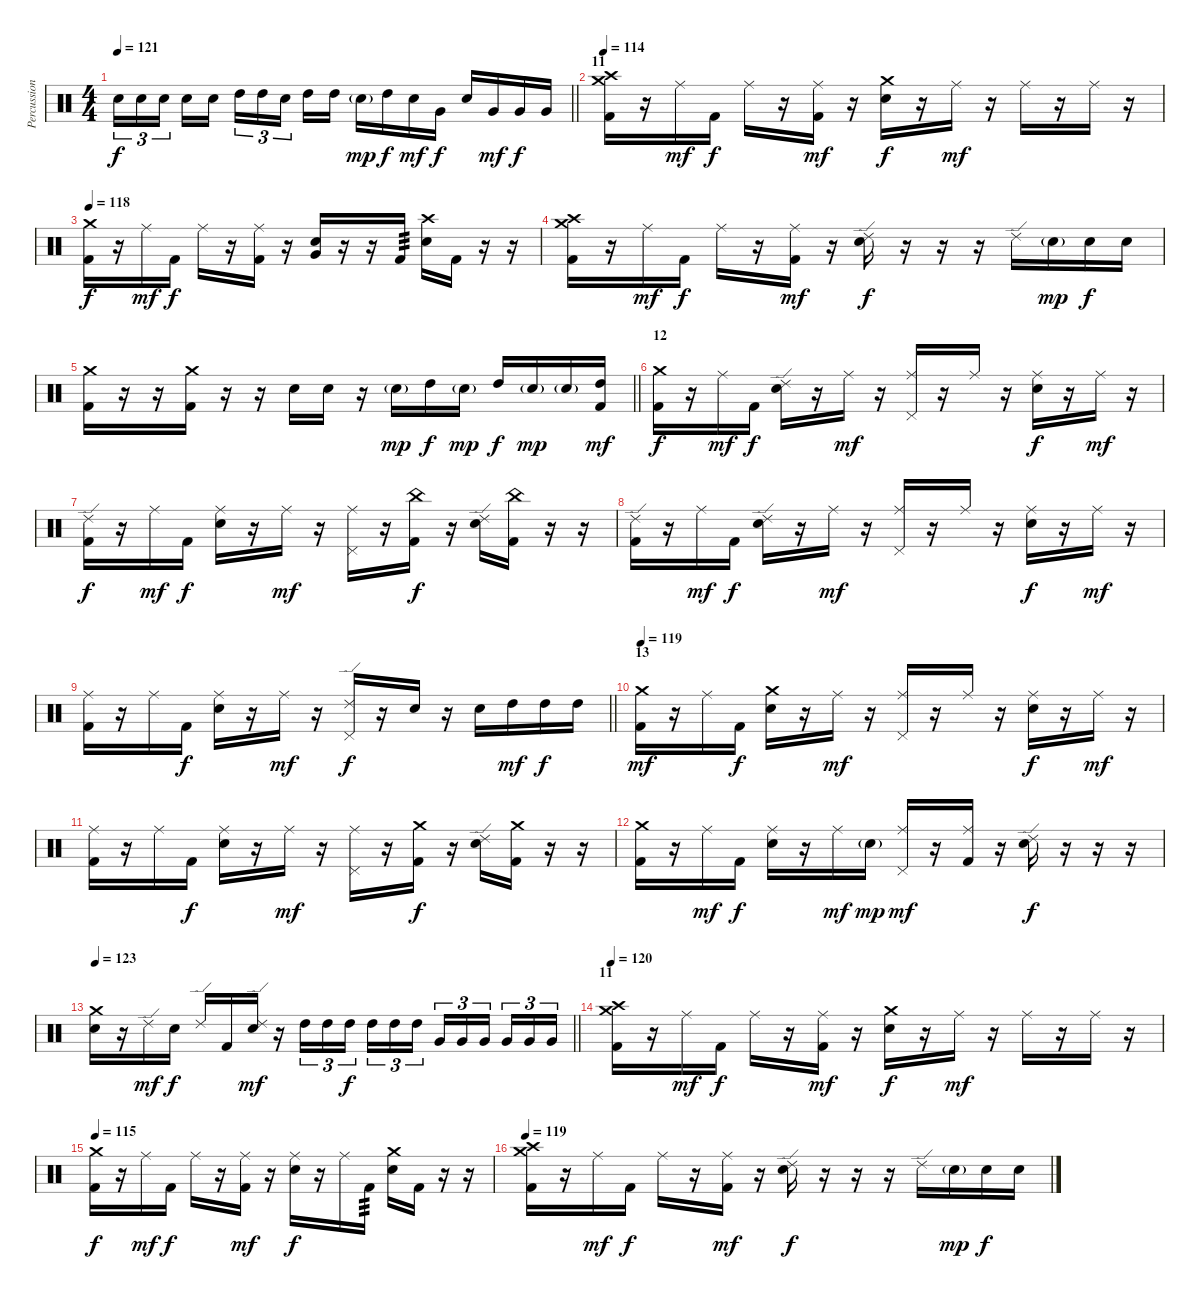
\track ("Percussion" "Percussion") {instrument percussion}
\staff {score}
\articulation defaults
\ts (4 4)
\tempo 121
\clef neutral
\barLineRight lightlight
\ks c "Snare (hit) 2".16{tu (3 2) dy f} "Snare (hit) 2".16{tu (3 2)} "Snare (hit) 2".16{tu (3 2) beam splitsecondary} "Snare (hit) 2".16 "Snare (hit) 2".16 "High Tom (hit)".16{tu (3 2)} "High Tom (hit)".16{tu (3 2)} "Snare (hit) 2".16{tu (3 2) beam splitsecondary} "High Tom (hit)".16 "High Tom (hit)".16 "Snare (hit) 2"{g}.16{dy mp} "High Tom (hit)".16{dy f} "Snare (hit) 2".16{dy mf} "Very Low Tom (hit)".16{dy f} "Snare (hit) 2".16 "Very Low Tom (hit)".16{dy mf} "Very Low Tom (hit)".16{dy f} "Very Low Tom (hit)".16
|
\section ("" "11")
\tempo 114
("Crash high (hit)" "Crash medium (hit)" "Kick (hit) 2").16 r.16 "Ride (middle)".16{dy mf} "Kick (hit) 2".16{dy f} "Ride (middle)".16 r.16 ("Ride (middle)" "Kick (hit) 2").16{dy mf} r.16 ("Crash medium (hit)" "Snare (hit) 2").16{dy f} r.16 "Ride (middle)".16{dy mf} r.16 "Ride (middle)".16 r.16 "Ride (middle)".16 r.16 |
\tempo 118
("Crash medium (hit)" "Kick (hit) 2").16{dy f} r.16 "Ride (middle)".16{dy mf} "Kick (hit) 2".16{dy f} "Ride (middle)".16 r.16 ("Ride (middle)" "Kick (hit) 2").16 r.16 ("Snare (hit) 2" "Very Low Tom (hit)").16{bu 60} r.16 r.16 "Kick (hit) 2".16{tp 3} ("Crash high (hit)" "Snare (hit) 2").16 "Kick (hit) 2".16 r.16 r.16 |
("Crash high (hit)" "Crash medium (hit)" "Kick (hit) 2").16 r.16 "Ride (middle)".16{dy mf} "Kick (hit) 2".16{dy f} "Ride (middle)".16 r.16 ("Ride (middle)" "Kick (hit) 2").16{dy mf} r.16 ("Ride (edge) 2" "Snare (hit) 2").16{dy f} r.16 r.16 r.16 "Ride (edge) 2".16 "Snare (hit) 2"{g}.16{dy mp} "Snare (hit) 2".16{dy f} "Snare (hit) 2".16 |
\barLineRight lightlight
("Crash medium (hit)" "Kick (hit) 2").16 r.16 r.16 ("Crash medium (hit)" "Kick (hit) 2").16 r.16 r.16 "Snare (hit) 2".16 "Snare (hit) 2".16 r.16 "Snare (hit) 2"{g}.16{dy mp} "High Tom (hit)".16{dy f} "Snare (hit) 2"{g}.16{dy mp} "High Tom (hit)".16{dy f} "Snare (hit) 2"{g}.16{dy mp} "Snare (hit) 2"{g}.16 ("High Tom (hit)" "Kick (hit) 2").16{dy mf} |
\section ("" "12")
("Crash medium (hit)" "Kick (hit) 2").16{dy f} r.16 "Ride (middle)".16{dy mf} "Kick (hit) 2".16{dy f} ("Ride (edge) 2" "Snare (hit) 2").16 r.16 "Ride (middle)".16{dy mf} r.16 ("Ride (middle)" "Pedal Hi-Hat (hit)").16 r.16 "Ride (middle)".16 r.16 ("Ride (middle)" "Snare (hit) 2").16{dy f} r.16 "Ride (middle)".16{dy mf} r.16 |
("Ride (edge) 2" "Kick (hit) 2").16{dy f} r.16 "Ride (middle)".16{dy mf} "Kick (hit) 2".16{dy f} ("Ride (middle)" "Snare (hit) 2").16 r.16 "Ride (middle)".16{dy mf} r.16 ("Ride (middle)" "Pedal Hi-Hat (hit)").16 r.16 ("China (hit)" "Kick (hit) 2").16{dy f} r.16 ("Ride (edge) 2" "Snare (hit) 2").16 ("China (hit)" "Kick (hit) 2").16 r.16 r.16 |
("Ride (edge) 2" "Kick (hit) 2").16 r.16 "Ride (middle)".16{dy mf} "Kick (hit) 2".16{dy f} ("Ride (edge) 2" "Snare (hit) 2").16 r.16 "Ride (middle)".16{dy mf} r.16 ("Ride (middle)" "Pedal Hi-Hat (hit)").16 r.16 "Ride (middle)".16 r.16 ("Ride (middle)" "Snare (hit) 2").16{dy f} r.16 "Ride (middle)".16{dy mf} r.16 |
\barLineRight lightlight
("Ride (middle)" "Kick (hit) 2").16 r.16 "Ride (middle)".16 "Kick (hit) 2".16{dy f} ("Ride (middle)" "Snare (hit) 2").16 r.16 "Ride (middle)".16{dy mf} r.16 ("Ride (edge) 2" "Pedal Hi-Hat (hit)").16{dy f} r.16 "Snare (hit) 2".16 r.16 "Snare (hit) 2".16 "High Tom (hit)".16{dy mf} "High Tom (hit)".16{dy f} "High Tom (hit)".16 |
\section ("" "13")
\tempo 119
("Crash medium (hit)" "Kick (hit) 2").16{dy mf} r.16 "Ride (middle)".16 "Kick (hit) 2".16{dy f} ("Crash medium (hit)" "Snare (hit) 2").16 r.16 "Ride (middle)".16{dy mf} r.16 ("Ride (middle)" "Pedal Hi-Hat (hit)").16 r.16 "Ride (middle)".16 r.16 ("Ride (middle)" "Snare (hit) 2").16{dy f} r.16 "Ride (middle)".16{dy mf} r.16 |
("Ride (middle)" "Kick (hit) 2").16 r.16 "Ride (middle)".16 "Kick (hit) 2".16{dy f} ("Ride (middle)" "Snare (hit) 2").16 r.16 "Ride (middle)".16{dy mf} r.16 ("Ride (middle)" "Pedal Hi-Hat (hit)").16 r.16 ("Crash medium (hit)" "Kick (hit) 2").16{dy f} r.16 ("Ride (edge) 2" "Snare (hit) 2").16 ("Crash medium (hit)" "Kick (hit) 2").16 r.16 r.16 |
("Crash medium (hit)" "Kick (hit) 2").16 r.16 "Ride (middle)".16{dy mf} "Kick (hit) 2".16{dy f} ("Ride (middle)" "Snare (hit) 2").16 r.16 "Ride (middle)".16{dy mf} "Snare (hit) 2"{g}.16{dy mp} ("Ride (middle)" "Pedal Hi-Hat (hit)").16{dy mf} r.16 ("Ride (middle)" "Kick (hit) 2").16 r.16 ("Ride (edge) 2" "Snare (hit) 2").16{dy f} r.16 r.16 r.16 |
\tempo 123
\barLineRight lightlight
("Crash medium (hit)" "Snare (hit) 2").16 r.16 "Ride (edge) 2".16{dy mf} "Snare (hit) 2".16{dy f} "Ride (edge) 2".16 "Kick (hit) 2".16 ("Ride (edge) 2" "Snare (hit) 2").16{dy mf} r.16 "High Tom (hit)".16{tu (3 2)} "High Tom (hit)".16{tu (3 2)} "High Tom (hit)".16{tu (3 2) dy f beam splitsecondary} "High Tom (hit)".16{tu (3 2)} "High Tom (hit)".16{tu (3 2)} "High Tom (hit)".16{tu (3 2)} "Very Low Tom (hit)".16{tu (3 2)} "Very Low Tom (hit)".16{tu (3 2)} "Very Low Tom (hit)".16{tu (3 2) beam splitsecondary} "Very Low Tom (hit)".16{tu (3 2)} "Very Low Tom (hit)".16{tu (3 2)} "Very Low Tom (hit)".16{tu (3 2)} |
\section ("" "11")
\tempo 120
("Crash high (hit)" "Crash medium (hit)" "Kick (hit) 2").16 r.16 "Ride (middle)".16{dy mf} "Kick (hit) 2".16{dy f} "Ride (middle)".16 r.16 ("Ride (middle)" "Kick (hit) 2").16{dy mf} r.16 ("Crash medium (hit)" "Snare (hit) 2").16{dy f} r.16 "Ride (middle)".16{dy mf} r.16 "Ride (middle)".16 r.16 "Ride (middle)".16 r.16 |
\tempo 115
("Crash medium (hit)" "Kick (hit) 2").16{dy f} r.16 "Ride (middle)".16{dy mf} "Kick (hit) 2".16{dy f} "Ride (middle)".16 r.16 ("Ride (middle)" "Kick (hit) 2").16{dy mf} r.16 ("Ride (middle)" "Snare (hit) 2").16{dy f} r.16 "Ride (middle)".16 "Kick (hit) 2".16{tp 3} ("Crash medium (hit)" "Snare (hit) 2").16 "Kick (hit) 2".16 r.16 r.16 |
\tempo 119
("Crash high (hit)" "Crash medium (hit)" "Kick (hit) 2").16 r.16 "Ride (middle)".16{dy mf} "Kick (hit) 2".16{dy f} "Ride (middle)".16 r.16 ("Ride (middle)" "Kick (hit) 2").16{dy mf} r.16 ("Ride (edge) 2" "Snare (hit) 2").16{dy f} r.16 r.16 r.16 "Ride (edge) 2".16 "Snare (hit) 2"{g}.16{dy mp} "Snare (hit) 2".16{dy f} "Snare (hit) 2".16
